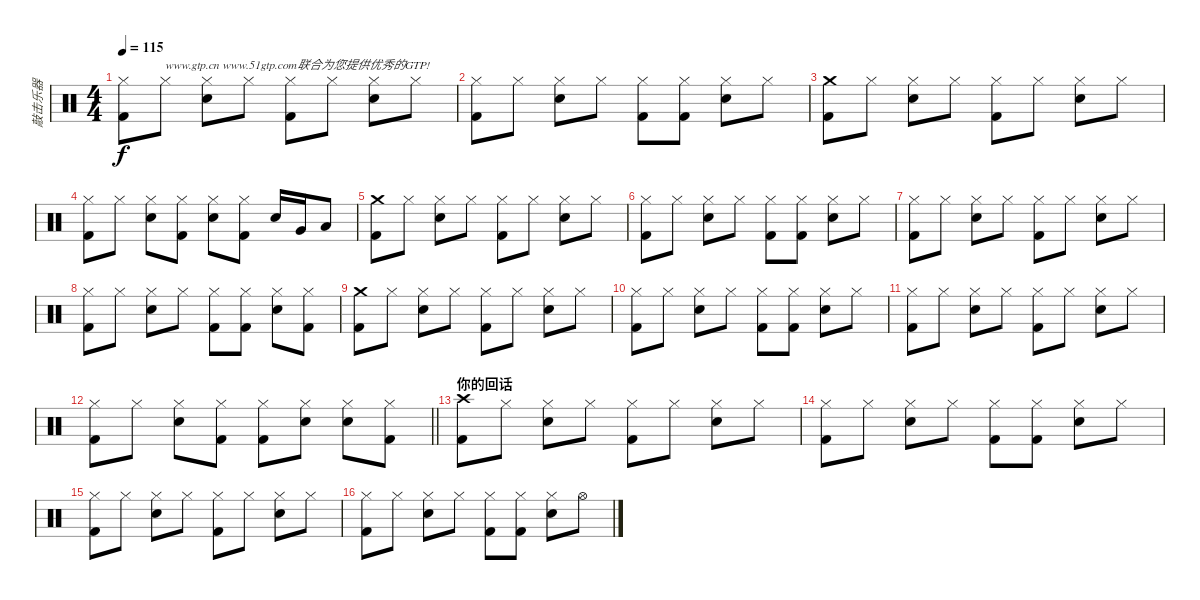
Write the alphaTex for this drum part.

\track ("敲击乐器" "敲击乐器") {instrument percussion}
\staff {score}
\articulation defaults
\ts (4 4)
\tempo 115
\clef neutral
\ks c
("Hi-Hat (closed)" "Kick (hit) 2").8{dy f} "Hi-Hat (closed)".8{txt "www.gtp.cn www.51gtp.com联合为您提供优秀的GTP!"} ("Electric Snare (hit)" "Hi-Hat (closed)").8 "Hi-Hat (closed)".8 ("Kick (hit) 2" "Hi-Hat (closed)").8 "Hi-Hat (closed)".8 ("Electric Snare (hit)" "Hi-Hat (closed)").8 "Hi-Hat (closed)".8 |
("Hi-Hat (closed)" "Kick (hit) 2").8 "Hi-Hat (closed)".8 ("Hi-Hat (closed)" "Electric Snare (hit)").8 "Hi-Hat (closed)".8 ("Hi-Hat (closed)" "Kick (hit) 2").8 ("Hi-Hat (closed)" "Kick (hit) 2").8 ("Hi-Hat (closed)" "Electric Snare (hit)").8 "Hi-Hat (closed)".8 |
("Crash medium (hit)" "Kick (hit) 2").8 "Hi-Hat (closed)".8 ("Electric Snare (hit)" "Hi-Hat (closed)").8 "Hi-Hat (closed)".8 ("Kick (hit) 2" "Hi-Hat (closed)").8 "Hi-Hat (closed)".8 ("Electric Snare (hit)" "Hi-Hat (closed)").8 "Hi-Hat (closed)".8 |
("Hi-Hat (closed)" "Kick (hit) 2").8 "Hi-Hat (closed)".8 ("Hi-Hat (closed)" "Electric Snare (hit)").8 ("Hi-Hat (closed)" "Kick (hit) 2").8 ("Hi-Hat (closed)" "Electric Snare (hit)").8 ("Hi-Hat (closed)" "Kick (hit) 2").8 "Electric Snare (hit)".16 "Very Low Tom (hit)".16 "Low Floor Tom (hit)".8 |
("Crash medium (hit)" "Kick (hit) 2").8 "Hi-Hat (closed)".8 ("Electric Snare (hit)" "Hi-Hat (closed)").8 "Hi-Hat (closed)".8 ("Kick (hit) 2" "Hi-Hat (closed)").8 "Hi-Hat (closed)".8 ("Electric Snare (hit)" "Hi-Hat (closed)").8 "Hi-Hat (closed)".8 |
("Hi-Hat (closed)" "Kick (hit) 2").8 "Hi-Hat (closed)".8 ("Hi-Hat (closed)" "Electric Snare (hit)").8 "Hi-Hat (closed)".8 ("Hi-Hat (closed)" "Kick (hit) 2").8 ("Hi-Hat (closed)" "Kick (hit) 2").8 ("Hi-Hat (closed)" "Electric Snare (hit)").8 "Hi-Hat (closed)".8 |
("Hi-Hat (closed)" "Kick (hit) 2").8 "Hi-Hat (closed)".8 ("Electric Snare (hit)" "Hi-Hat (closed)").8 "Hi-Hat (closed)".8 ("Kick (hit) 2" "Hi-Hat (closed)").8 "Hi-Hat (closed)".8 ("Electric Snare (hit)" "Hi-Hat (closed)").8 "Hi-Hat (closed)".8 |
("Hi-Hat (closed)" "Kick (hit) 2").8 "Hi-Hat (closed)".8 ("Hi-Hat (closed)" "Electric Snare (hit)").8 "Hi-Hat (closed)".8 ("Hi-Hat (closed)" "Kick (hit) 2").8 ("Hi-Hat (closed)" "Kick (hit) 2").8 ("Hi-Hat (closed)" "Electric Snare (hit)").8 ("Hi-Hat (closed)" "Kick (hit) 2").8 |
("Crash medium (hit)" "Kick (hit) 2").8 "Hi-Hat (closed)".8 ("Electric Snare (hit)" "Hi-Hat (closed)").8 "Hi-Hat (closed)".8 ("Kick (hit) 2" "Hi-Hat (closed)").8 "Hi-Hat (closed)".8 ("Electric Snare (hit)" "Hi-Hat (closed)").8 "Hi-Hat (closed)".8 |
("Hi-Hat (closed)" "Kick (hit) 2").8 "Hi-Hat (closed)".8 ("Hi-Hat (closed)" "Electric Snare (hit)").8 "Hi-Hat (closed)".8 ("Hi-Hat (closed)" "Kick (hit) 2").8 ("Hi-Hat (closed)" "Kick (hit) 2").8 ("Hi-Hat (closed)" "Electric Snare (hit)").8 "Hi-Hat (closed)".8 |
("Hi-Hat (closed)" "Kick (hit) 2").8 "Hi-Hat (closed)".8 ("Electric Snare (hit)" "Hi-Hat (closed)").8 "Hi-Hat (closed)".8 ("Kick (hit) 2" "Hi-Hat (closed)").8 "Hi-Hat (closed)".8 ("Electric Snare (hit)" "Hi-Hat (closed)").8 "Hi-Hat (closed)".8 |
\barLineRight lightlight
("Hi-Hat (closed)" "Kick (hit) 2").8 "Hi-Hat (closed)".8 ("Hi-Hat (closed)" "Electric Snare (hit)").8 ("Hi-Hat (closed)" "Kick (hit) 2").8 ("Hi-Hat (closed)" "Kick (hit) 2").8 ("Hi-Hat (closed)" "Electric Snare (hit)").8 ("Hi-Hat (closed)" "Electric Snare (hit)").8 ("Hi-Hat (closed)" "Kick (hit) 2").8 |
\section ("" "你的回话")
("Crash high (hit)" "Kick (hit) 2").8 "Hi-Hat (closed)".8 ("Hi-Hat (closed)" "Electric Snare (hit)").8 "Hi-Hat (closed)".8 ("Hi-Hat (closed)" "Kick (hit) 2").8 "Hi-Hat (closed)".8 ("Hi-Hat (closed)" "Electric Snare (hit)").8 "Hi-Hat (closed)".8 |
("Hi-Hat (closed)" "Kick (hit) 2").8 "Hi-Hat (closed)".8 ("Hi-Hat (closed)" "Electric Snare (hit)").8 "Hi-Hat (closed)".8 ("Hi-Hat (closed)" "Kick (hit) 2").8 ("Hi-Hat (closed)" "Kick (hit) 2").8 ("Hi-Hat (closed)" "Electric Snare (hit)").8 "Hi-Hat (closed)".8 |
("Hi-Hat (closed)" "Kick (hit) 2").8 "Hi-Hat (closed)".8 ("Hi-Hat (closed)" "Electric Snare (hit)").8 "Hi-Hat (closed)".8 ("Hi-Hat (closed)" "Kick (hit) 2").8 "Hi-Hat (closed)".8 ("Hi-Hat (closed)" "Electric Snare (hit)").8 "Hi-Hat (closed)".8 |
("Hi-Hat (closed)" "Kick (hit) 2").8 "Hi-Hat (closed)".8 ("Hi-Hat (closed)" "Electric Snare (hit)").8 "Hi-Hat (closed)".8 ("Hi-Hat (closed)" "Kick (hit) 2").8 ("Hi-Hat (closed)" "Kick (hit) 2").8 ("Hi-Hat (closed)" "Electric Snare (hit)").8 "Hi-Hat (open)".8
